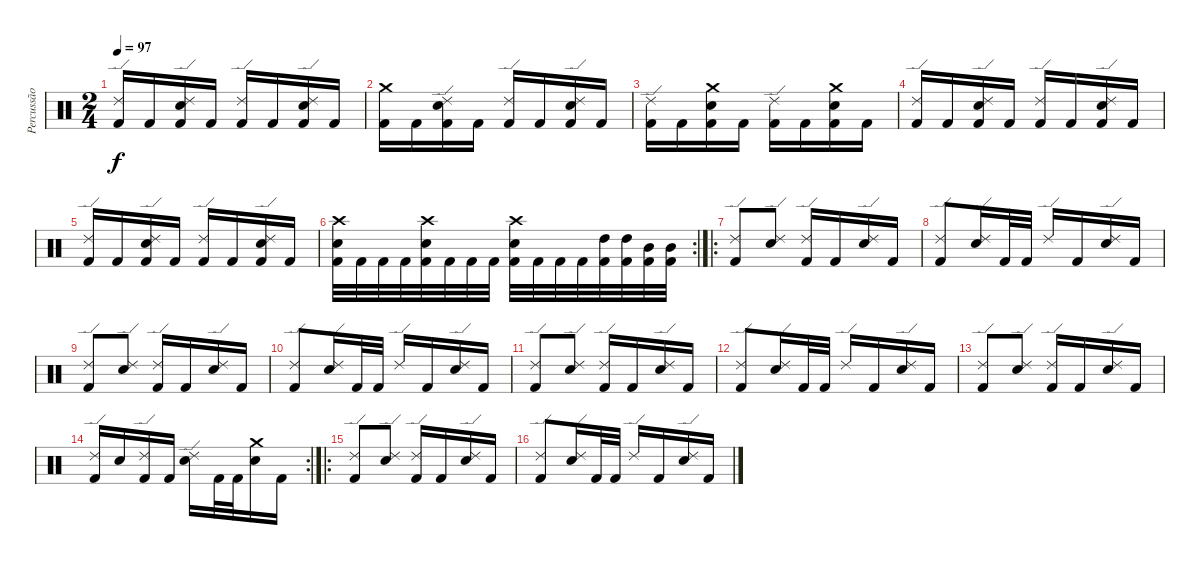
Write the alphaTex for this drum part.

\track ("Percussão" "Percussão") {instrument percussion}
\staff {score}
\articulation defaults
\ts (2 4)
\tempo 97
\clef neutral
\ks c
("Ride (edge) 2" "Kick (hit) 2").16{dy f} "Kick (hit) 2".16 ("Ride (edge) 2" "Snare (hit) 2" "Kick (hit) 2").16 "Kick (hit) 2".16 ("Ride (edge) 2" "Kick (hit) 2").16 "Kick (hit) 2".16 ("Ride (edge) 2" "Snare (hit) 2" "Kick (hit) 2").16 "Kick (hit) 2".16 |
("Crash medium (hit)" "Kick (hit) 2").16 "Kick (hit) 2".16 ("Ride (edge) 2" "Snare (hit) 2" "Kick (hit) 2").16 "Kick (hit) 2".16 ("Ride (edge) 2" "Kick (hit) 2").16 "Kick (hit) 2".16 ("Ride (edge) 2" "Snare (hit) 2" "Kick (hit) 2").16 "Kick (hit) 2".16 |
("Ride (edge) 2" "Kick (hit) 2").16 "Kick (hit) 2".16 ("Crash medium (hit)" "Snare (hit) 2" "Kick (hit) 2").16 "Kick (hit) 2".16 ("Ride (edge) 2" "Kick (hit) 2").16 "Kick (hit) 2".16 ("Crash medium (hit)" "Snare (hit) 2" "Kick (hit) 2").16 "Kick (hit) 2".16 |
("Ride (edge) 2" "Kick (hit) 2").16 "Kick (hit) 2".16 ("Ride (edge) 2" "Snare (hit) 2" "Kick (hit) 2").16 "Kick (hit) 2".16 ("Ride (edge) 2" "Kick (hit) 2").16 "Kick (hit) 2".16 ("Ride (edge) 2" "Snare (hit) 2" "Kick (hit) 2").16 "Kick (hit) 2".16 |
("Ride (edge) 2" "Kick (hit) 2").16 "Kick (hit) 2".16 ("Ride (edge) 2" "Snare (hit) 2" "Kick (hit) 2").16 "Kick (hit) 2".16 ("Ride (edge) 2" "Kick (hit) 2").16 "Kick (hit) 2".16 ("Ride (edge) 2" "Snare (hit) 2" "Kick (hit) 2").16 "Kick (hit) 2".16 |
\rc 2
("Crash high (hit)" "Snare (hit) 2" "Kick (hit) 2").32 "Kick (hit) 2".32 "Kick (hit) 2".32 "Kick (hit) 2".32 ("Crash high (hit)" "Snare (hit) 2" "Kick (hit) 2").32 "Kick (hit) 2".32 "Kick (hit) 2".32 "Kick (hit) 2".32 ("Crash high (hit)" "Snare (hit) 2" "Kick (hit) 2").32 "Kick (hit) 2".32 "Kick (hit) 2".32 "Kick (hit) 2".32 ("High Tom (hit)" "Kick (hit) 2").32 ("High Tom (hit)" "Kick (hit) 2").32 ("Mid Tom (hit)" "Kick (hit) 2").32 ("Mid Tom (hit)" "Kick (hit) 2").32 |
\ro
("Ride (edge) 2" "Kick (hit) 2").8 ("Ride (edge) 2" "Snare (hit) 2").8 ("Ride (edge) 2" "Kick (hit) 2").16 "Kick (hit) 2".16 ("Ride (edge) 2" "Snare (hit) 2").16 "Kick (hit) 2".16 |
("Ride (edge) 2" "Kick (hit) 2").8 ("Ride (edge) 2" "Snare (hit) 2").16 "Kick (hit) 2".32 "Kick (hit) 2".32 "Ride (edge) 2".16 "Kick (hit) 2".16 ("Ride (edge) 2" "Snare (hit) 2").16 "Kick (hit) 2".16 |
("Ride (edge) 2" "Kick (hit) 2").8 ("Ride (edge) 2" "Snare (hit) 2").8 ("Ride (edge) 2" "Kick (hit) 2").16 "Kick (hit) 2".16 ("Ride (edge) 2" "Snare (hit) 2").16 "Kick (hit) 2".16 |
("Ride (edge) 2" "Kick (hit) 2").8 ("Ride (edge) 2" "Snare (hit) 2").16 "Kick (hit) 2".32 "Kick (hit) 2".32 "Ride (edge) 2".16 "Kick (hit) 2".16 ("Ride (edge) 2" "Snare (hit) 2").16 "Kick (hit) 2".16 |
("Ride (edge) 2" "Kick (hit) 2").8 ("Ride (edge) 2" "Snare (hit) 2").8 ("Ride (edge) 2" "Kick (hit) 2").16 "Kick (hit) 2".16 ("Ride (edge) 2" "Snare (hit) 2").16 "Kick (hit) 2".16 |
("Ride (edge) 2" "Kick (hit) 2").8 ("Ride (edge) 2" "Snare (hit) 2").16 "Kick (hit) 2".32 "Kick (hit) 2".32 "Ride (edge) 2".16 "Kick (hit) 2".16 ("Ride (edge) 2" "Snare (hit) 2").16 "Kick (hit) 2".16 |
("Ride (edge) 2" "Kick (hit) 2").8 ("Ride (edge) 2" "Snare (hit) 2").8 ("Ride (edge) 2" "Kick (hit) 2").16 "Kick (hit) 2".16 ("Ride (edge) 2" "Snare (hit) 2").16 "Kick (hit) 2".16 |
\rc 2
("Ride (edge) 2" "Kick (hit) 2").16 "Snare (hit) 2".16 ("Ride (edge) 2" "Kick (hit) 2").16 "Kick (hit) 2".16 ("Ride (edge) 2" "Snare (hit) 2").16 "Kick (hit) 2".32 "Kick (hit) 2".32 ("Crash medium (hit)" "Snare (hit) 2").16 "Kick (hit) 2".16 |
\ro
("Ride (edge) 2" "Kick (hit) 2").8 ("Ride (edge) 2" "Snare (hit) 2").8 ("Ride (edge) 2" "Kick (hit) 2").16 "Kick (hit) 2".16 ("Ride (edge) 2" "Snare (hit) 2").16 "Kick (hit) 2".16 |
("Ride (edge) 2" "Kick (hit) 2").8 ("Ride (edge) 2" "Snare (hit) 2").16 "Kick (hit) 2".32 "Kick (hit) 2".32 "Ride (edge) 2".16 "Kick (hit) 2".16 ("Ride (edge) 2" "Snare (hit) 2").16 "Kick (hit) 2".16
